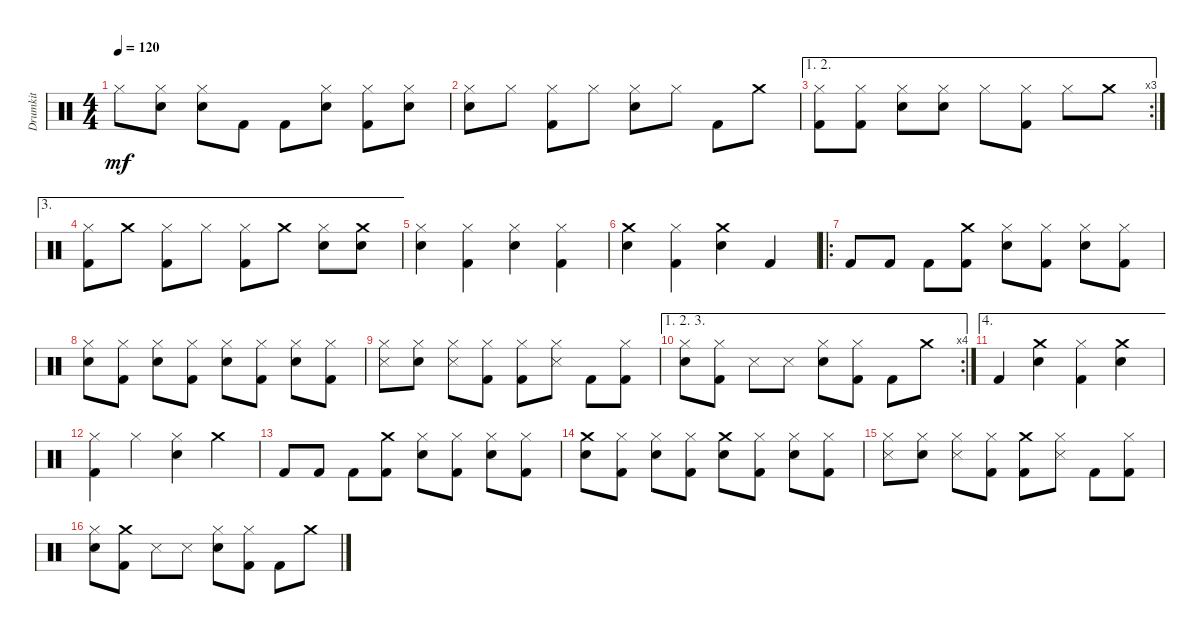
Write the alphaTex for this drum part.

\track ("Drumkit" "Drumkit") {instrument percussion}
\staff {score}
\articulation defaults
\ts (4 4)
\tempo 120
\clef neutral
\ks c "Hi-Hat (closed)".8{dy mf}
("Hi-Hat (closed)" "Snare (hit) 2").8 ("Hi-Hat (closed)" "Snare (hit) 2").8 "Kick (hit) 2".8 "Kick (hit) 2".8 ("Hi-Hat (closed)" "Snare (hit) 2").8 ("Hi-Hat (closed)" "Kick (hit) 2").8 ("Hi-Hat (closed)" "Snare (hit) 2").8 |
("Snare (hit) 2" "Hi-Hat (closed)").8 "Hi-Hat (closed)".8 ("Hi-Hat (closed)" "Kick (hit) 2").8 "Hi-Hat (closed)".8 ("Hi-Hat (closed)" "Snare (hit) 2").8 "Hi-Hat (closed)".8 "Kick (hit) 2".8 "Crash medium (hit)".8 |
\ae (1 2)
\rc 3
("Hi-Hat (closed)" "Kick (hit) 2").8 ("Hi-Hat (closed)" "Kick (hit) 2").8 ("Hi-Hat (closed)" "Snare (hit) 2").8 ("Hi-Hat (closed)" "Snare (hit) 2").8 "Hi-Hat (closed)".8 ("Hi-Hat (closed)" "Kick (hit) 2").8 "Hi-Hat (closed)".8 "Crash medium (hit)".8 |
\ae 3
("Hi-Hat (closed)" "Kick (hit) 2").8 "Crash medium (hit)".8 ("Hi-Hat (closed)" "Kick (hit) 2").8 "Hi-Hat (closed)".8 ("Hi-Hat (closed)" "Kick (hit) 2").8 "Crash medium (hit)".8 ("Hi-Hat (closed)" "Snare (hit) 2").8 ("Crash medium (hit)" "Snare (hit) 2").8 |
("Hi-Hat (closed)" "Snare (hit) 2").4 ("Kick (hit) 2" "Hi-Hat (closed)").4 ("Hi-Hat (closed)" "Snare (hit) 2").4 ("Hi-Hat (closed)" "Kick (hit) 2").4 |
("Snare (hit) 2" "Crash medium (hit)").4 ("Kick (hit) 2" "Hi-Hat (closed)").4 ("Crash medium (hit)" "Snare (hit) 2").4 "Kick (hit) 2".4 |
\ro "Kick (hit) 2".8 "Kick (hit) 2".8 "Kick (hit) 2".8
("Crash medium (hit)" "Kick (hit) 2").8 ("Snare (hit) 2" "Hi-Hat (closed)").8 ("Kick (hit) 2" "Hi-Hat (closed)").8 ("Hi-Hat (closed)" "Snare (hit) 2").8 ("Hi-Hat (closed)" "Kick (hit) 2").8 |
("Hi-Hat (closed)" "Snare (hit) 2").8 ("Hi-Hat (closed)" "Kick (hit) 2").8 ("Hi-Hat (closed)" "Snare (hit) 2").8 ("Hi-Hat (closed)" "Kick (hit) 2").8 ("Hi-Hat (closed)" "Snare (hit) 2").8 ("Hi-Hat (closed)" "Kick (hit) 2").8 ("Hi-Hat (closed)" "Snare (hit) 2").8 ("Hi-Hat (closed)" "Kick (hit) 2").8 |
("Snare (side stick) 3" "Hi-Hat (closed)").8 ("Snare (hit) 2" "Hi-Hat (closed)").8 ("Snare (side stick) 3" "Hi-Hat (closed)").8 ("Kick (hit) 2" "Hi-Hat (closed)").8 ("Hi-Hat (closed)" "Kick (hit) 2").8 ("Snare (side stick) 3" "Hi-Hat (closed)").8 "Kick (hit) 2".8 ("Kick (hit) 2" "Hi-Hat (closed)").8 |
\ae (1 2 3)
\rc 4
("Snare (hit) 2" "Hi-Hat (closed)").8 ("Kick (hit) 2" "Hi-Hat (closed)").8 "Snare (side stick) 3".8 "Snare (side stick) 3".8 ("Hi-Hat (closed)" "Snare (hit) 2").8 ("Hi-Hat (closed)" "Kick (hit) 2").8 "Kick (hit) 2".8 "Crash medium (hit)".8 |
\ae 4 "Kick (hit) 2".4
("Crash medium (hit)" "Snare (hit) 2").4 ("Kick (hit) 2" "Hi-Hat (closed)").4 ("Crash medium (hit)" "Snare (hit) 2").4 |
("Hi-Hat (closed)" "Kick (hit) 2").4 "Hi-Hat (closed)".4 ("Snare (hit) 2" "Hi-Hat (closed)").4 "Crash medium (hit)".4 |
"Kick (hit) 2".8 "Kick (hit) 2".8 "Kick (hit) 2".8 ("Crash medium (hit)" "Kick (hit) 2").8 ("Snare (hit) 2" "Hi-Hat (closed)").8 ("Kick (hit) 2" "Hi-Hat (closed)").8 ("Hi-Hat (closed)" "Snare (hit) 2").8 ("Hi-Hat (closed)" "Kick (hit) 2").8 |
("Snare (hit) 2" "Crash medium (hit)").8 ("Hi-Hat (closed)" "Kick (hit) 2").8 ("Hi-Hat (closed)" "Snare (hit) 2").8 ("Hi-Hat (closed)" "Kick (hit) 2").8 ("Snare (hit) 2" "Crash medium (hit)").8 ("Hi-Hat (closed)" "Kick (hit) 2").8 ("Hi-Hat (closed)" "Snare (hit) 2").8 ("Hi-Hat (closed)" "Kick (hit) 2").8 |
("Snare (side stick) 3" "Hi-Hat (closed)").8 ("Snare (hit) 2" "Hi-Hat (closed)").8 ("Snare (side stick) 3" "Hi-Hat (closed)").8 ("Kick (hit) 2" "Hi-Hat (closed)").8 ("Kick (hit) 2" "Crash medium (hit)").8 ("Snare (side stick) 3" "Hi-Hat (closed)").8 "Kick (hit) 2".8 ("Kick (hit) 2" "Hi-Hat (closed)").8 |
("Snare (hit) 2" "Hi-Hat (closed)").8 ("Kick (hit) 2" "Crash medium (hit)").8 "Snare (side stick) 3".8 "Snare (side stick) 3".8 ("Hi-Hat (closed)" "Snare (hit) 2").8 ("Hi-Hat (closed)" "Kick (hit) 2").8 "Kick (hit) 2".8 "Crash medium (hit)".8
